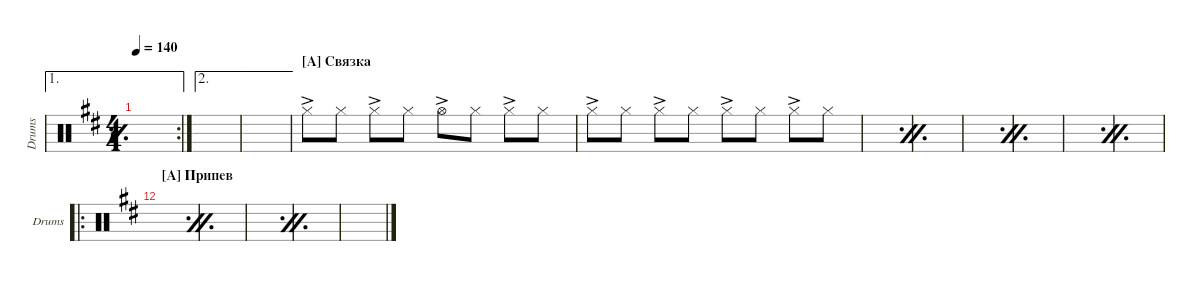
\defaultSystemsLayout 4
\hideDynamics
\bracketExtendMode groupsimilarinstruments
\singleTrackTrackNamePolicy allsystems
\multiTrackTrackNamePolicy allsystems
\otherSystemsTrackNameOrientation horizontal
\defaultBarNumberDisplay FirstOfSystem
\track ("Drumkit" "Drums") {instrument percussion}
\staff {score}
\articulation defaults
\ae 1
\rc 2
\ts (4 4)
\tempo 140
\clef neutral
\simile simple
\ks bminor
|
\ae 2
|
\ae 2
|
\section ("A" "Связка")
\simile none "Hi-Hat (closed)"{ac}.8 "Hi-Hat (closed)".8 "Hi-Hat (closed)"{ac}.8 "Hi-Hat (closed)".8 "Hi-Hat (open)"{ac}.8 "Hi-Hat (closed)".8 "Hi-Hat (closed)"{ac}.8 "Hi-Hat (closed)".8
|
"Hi-Hat (closed)"{ac}.8 "Hi-Hat (closed)".8 "Hi-Hat (closed)"{ac}.8 "Hi-Hat (closed)".8 "Hi-Hat (closed)"{ac}.8 "Hi-Hat (closed)".8 "Hi-Hat (closed)"{ac}.8 "Hi-Hat (closed)".8 |
\simile firstofdouble
|
\simile secondofdouble
|
\simile firstofdouble
|
\simile secondofdouble
|
\simile firstofdouble
|
\simile secondofdouble
|
\ro
\section ("A" "Припев")
\simile firstofdouble
|
\simile secondofdouble
|
\simile firstofdouble
|
\simile secondofdouble
|
\simile firstofdouble
